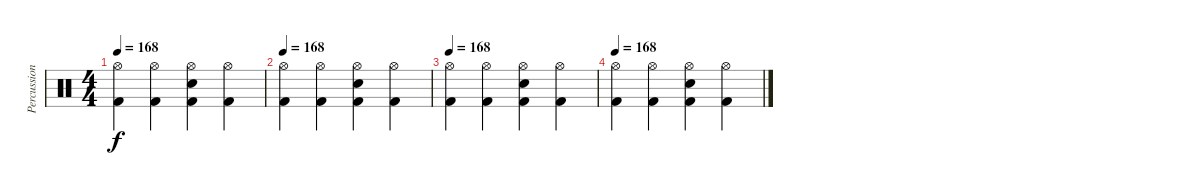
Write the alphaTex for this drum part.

\track ("Percussion" "Percussion") {instrument percussion}
\staff {score}
\articulation defaults
\ts (4 4)
\tempo 168
\clef neutral
\ks c
("Hi-Hat (open)" "Kick (hit) 2").4{dy f} ("Hi-Hat (open)" "Kick (hit) 2").4 ("Hi-Hat (open)" "Electric Snare (hit)" "Kick (hit) 2").4 ("Hi-Hat (open)" "Kick (hit) 2").4 |
\tempo 168
("Hi-Hat (open)" "Kick (hit) 2").4 ("Hi-Hat (open)" "Kick (hit) 2").4 ("Hi-Hat (open)" "Electric Snare (hit)" "Kick (hit) 2").4 ("Hi-Hat (open)" "Kick (hit) 2").4 |
\tempo 168
("Hi-Hat (open)" "Kick (hit) 2").4 ("Hi-Hat (open)" "Kick (hit) 2").4 ("Hi-Hat (open)" "Electric Snare (hit)" "Kick (hit) 2").4 ("Hi-Hat (open)" "Kick (hit) 2").4 |
\tempo 168
("Hi-Hat (open)" "Kick (hit) 2").4 ("Hi-Hat (open)" "Kick (hit) 2").4 ("Hi-Hat (open)" "Electric Snare (hit)" "Kick (hit) 2").4 ("Hi-Hat (open)" "Kick (hit) 2").4
